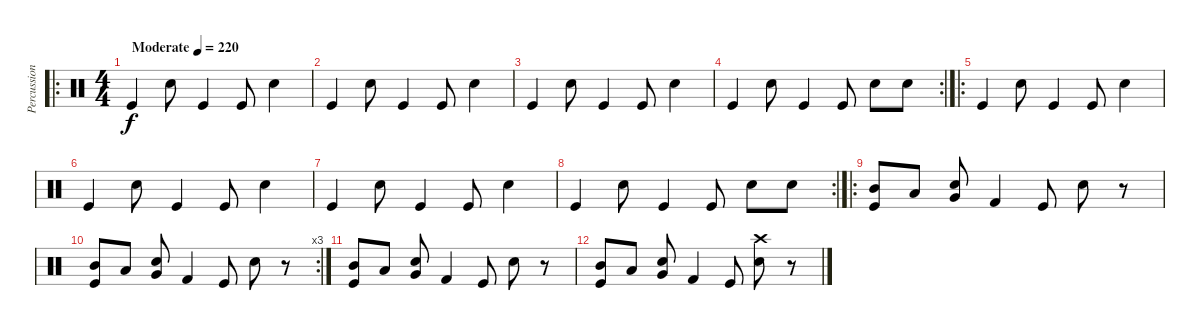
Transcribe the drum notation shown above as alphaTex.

\track ("Percussion" "Percussion") {instrument percussion}
\staff {score}
\articulation defaults
\ro
\ts (4 4)
\tempo (220 "Moderate")
\clef neutral
\ks c "Kick (hit)".4{dy f} "Snare (hit) 2".8 "Kick (hit)".4 "Kick (hit)".8 "Snare (hit) 2".4
|
"Kick (hit)".4 "Snare (hit) 2".8 "Kick (hit)".4 "Kick (hit)".8 "Snare (hit) 2".4 |
"Kick (hit)".4 "Snare (hit) 2".8 "Kick (hit)".4 "Kick (hit)".8 "Snare (hit) 2".4 |
\rc 2 "Kick (hit)".4 "Snare (hit) 2".8 "Kick (hit)".4 "Kick (hit)".8 "Snare (hit) 2".8 "Snare (hit) 2".8
|
\ro "Kick (hit)".4 "Snare (hit) 2".8 "Kick (hit)".4 "Kick (hit)".8 "Snare (hit) 2".4
|
"Kick (hit)".4 "Snare (hit) 2".8 "Kick (hit)".4 "Kick (hit)".8 "Snare (hit) 2".4 |
"Kick (hit)".4 "Snare (hit) 2".8 "Kick (hit)".4 "Kick (hit)".8 "Snare (hit) 2".4 |
\rc 2 "Kick (hit)".4 "Snare (hit) 2".8 "Kick (hit)".4 "Kick (hit)".8 "Snare (hit) 2".8 "Snare (hit) 2".8
|
\ro
("Kick (hit)" "Mid Tom (hit)").8 "Low Tom (hit)".8 ("Very Low Tom (hit)" "Snare (hit) 2").8 "Kick (hit) 2".4 "Kick (hit)".8 "Snare (hit) 2".8 r.8 |
\rc 3
("Kick (hit)" "Mid Tom (hit)").8 "Low Tom (hit)".8 ("Very Low Tom (hit)" "Snare (hit) 2").8 "Kick (hit) 2".4 "Kick (hit)".8 "Snare (hit) 2".8 r.8 |
("Kick (hit)" "Mid Tom (hit)").8 "Low Tom (hit)".8 ("Very Low Tom (hit)" "Snare (hit) 2").8 "Kick (hit) 2".4 "Kick (hit)".8 "Snare (hit) 2".8 r.8 |
("Kick (hit)" "Mid Tom (hit)").8 "Low Tom (hit)".8 ("Very Low Tom (hit)" "Snare (hit) 2").8 "Kick (hit) 2".4 "Kick (hit)".8 ("Snare (hit) 2" "Crash high (hit)").8 r.8
